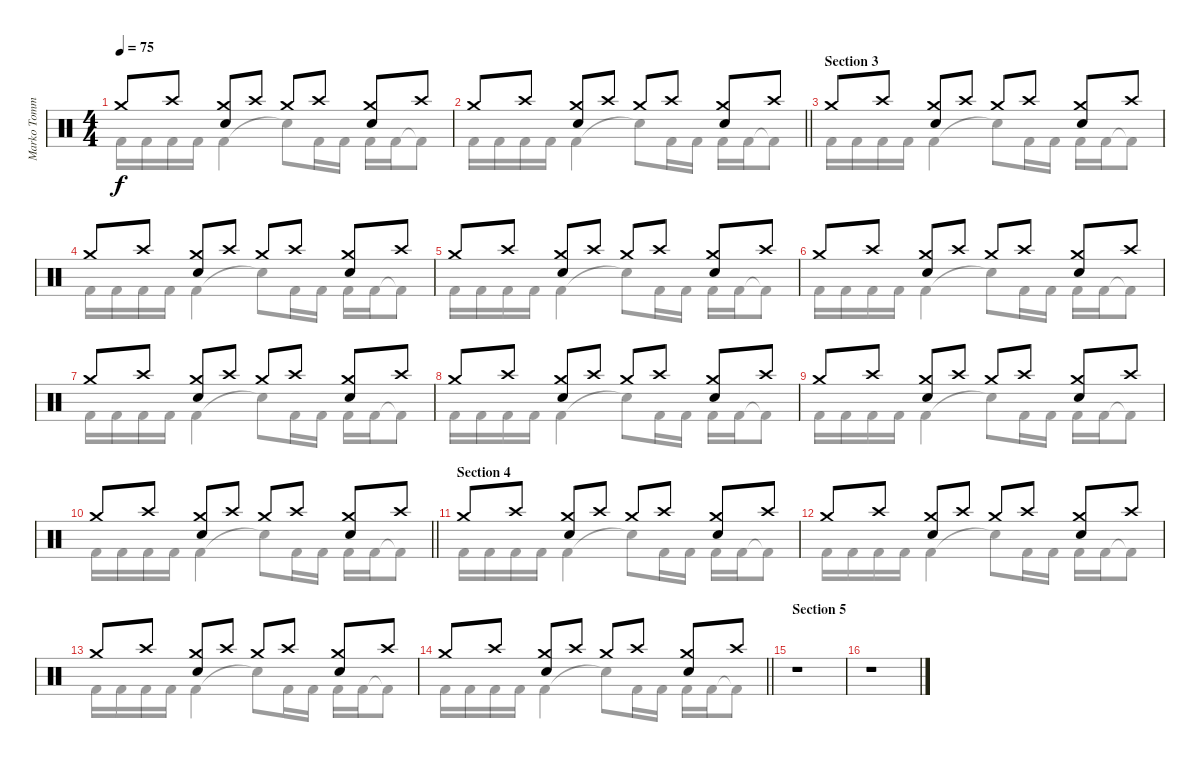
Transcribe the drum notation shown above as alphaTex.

\track ("Marko Tommila (drums)" "Marko Tomm") {instrument percussion}
\staff {score}
\articulation defaults
\voice
\ts (4 4)
\tempo 75
\clef neutral
\ks aminor "Crash medium (hit)".8{dy f} "Crash high (hit)".8
("Crash medium (hit)" "Electric Snare (hit)").8 "Crash high (hit)".8 "Crash medium (hit)".8 "Crash high (hit)".8 ("Crash medium (hit)" "Electric Snare (hit)").8 "Crash high (hit)".8 |
\barLineRight lightlight "Crash medium (hit)".8 "Crash high (hit)".8
("Crash medium (hit)" "Electric Snare (hit)").8 "Crash high (hit)".8 "Crash medium (hit)".8 "Crash high (hit)".8 ("Crash medium (hit)" "Electric Snare (hit)").8 "Crash high (hit)".8 |
\section ("" "Section 3")
"Crash medium (hit)".8 "Crash high (hit)".8 ("Crash medium (hit)" "Electric Snare (hit)").8 "Crash high (hit)".8 "Crash medium (hit)".8 "Crash high (hit)".8 ("Crash medium (hit)" "Electric Snare (hit)").8 "Crash high (hit)".8 |
"Crash medium (hit)".8 "Crash high (hit)".8 ("Crash medium (hit)" "Electric Snare (hit)").8 "Crash high (hit)".8 "Crash medium (hit)".8 "Crash high (hit)".8 ("Crash medium (hit)" "Electric Snare (hit)").8 "Crash high (hit)".8 |
"Crash medium (hit)".8 "Crash high (hit)".8 ("Crash medium (hit)" "Electric Snare (hit)").8 "Crash high (hit)".8 "Crash medium (hit)".8 "Crash high (hit)".8 ("Crash medium (hit)" "Electric Snare (hit)").8 "Crash high (hit)".8 |
"Crash medium (hit)".8 "Crash high (hit)".8 ("Crash medium (hit)" "Electric Snare (hit)").8 "Crash high (hit)".8 "Crash medium (hit)".8 "Crash high (hit)".8 ("Crash medium (hit)" "Electric Snare (hit)").8 "Crash high (hit)".8 |
"Crash medium (hit)".8 "Crash high (hit)".8 ("Crash medium (hit)" "Electric Snare (hit)").8 "Crash high (hit)".8 "Crash medium (hit)".8 "Crash high (hit)".8 ("Crash medium (hit)" "Electric Snare (hit)").8 "Crash high (hit)".8 |
"Crash medium (hit)".8 "Crash high (hit)".8 ("Crash medium (hit)" "Electric Snare (hit)").8 "Crash high (hit)".8 "Crash medium (hit)".8 "Crash high (hit)".8 ("Crash medium (hit)" "Electric Snare (hit)").8 "Crash high (hit)".8 |
"Crash medium (hit)".8 "Crash high (hit)".8 ("Crash medium (hit)" "Electric Snare (hit)").8 "Crash high (hit)".8 "Crash medium (hit)".8 "Crash high (hit)".8 ("Crash medium (hit)" "Electric Snare (hit)").8 "Crash high (hit)".8 |
\barLineRight lightlight "Crash medium (hit)".8 "Crash high (hit)".8
("Crash medium (hit)" "Electric Snare (hit)").8 "Crash high (hit)".8 "Crash medium (hit)".8 "Crash high (hit)".8 ("Crash medium (hit)" "Electric Snare (hit)").8 "Crash high (hit)".8 |
\section ("" "Section 4")
"Crash medium (hit)".8 "Crash high (hit)".8 ("Crash medium (hit)" "Electric Snare (hit)").8 "Crash high (hit)".8 "Crash medium (hit)".8 "Crash high (hit)".8 ("Crash medium (hit)" "Electric Snare (hit)").8 "Crash high (hit)".8 |
"Crash medium (hit)".8 "Crash high (hit)".8 ("Crash medium (hit)" "Electric Snare (hit)").8 "Crash high (hit)".8 "Crash medium (hit)".8 "Crash high (hit)".8 ("Crash medium (hit)" "Electric Snare (hit)").8 "Crash high (hit)".8 |
"Crash medium (hit)".8 "Crash high (hit)".8 ("Crash medium (hit)" "Electric Snare (hit)").8 "Crash high (hit)".8 "Crash medium (hit)".8 "Crash high (hit)".8 ("Crash medium (hit)" "Electric Snare (hit)").8 "Crash high (hit)".8 |
\barLineRight lightlight "Crash medium (hit)".8 "Crash high (hit)".8
("Crash medium (hit)" "Electric Snare (hit)").8 "Crash high (hit)".8 "Crash medium (hit)".8 "Crash high (hit)".8 ("Crash medium (hit)" "Electric Snare (hit)").8 "Crash high (hit)".8 |
\section ("" "Section 5")
r.1 |
r.1
\voice
\clef neutral
\ottava regular
\simile none
\ks aminor "Kick (hit) 2".16{dy f} "Kick (hit) 2".16 "Kick (hit) 2".16 "Kick (hit) 2".16 "Kick (hit) 2".4 "Snare (hit)"{t}.8 "Kick (hit) 2".16 "Kick (hit) 2".16 "Kick (hit) 2".16 "Kick (hit) 2".16 "Kick (hit) 2"{t}.8
|
\barLineRight lightlight "Kick (hit) 2".16 "Kick (hit) 2".16 "Kick (hit) 2".16 "Kick (hit) 2".16 "Kick (hit) 2".4 "Snare (hit)"{t}.8 "Kick (hit) 2".16 "Kick (hit) 2".16 "Kick (hit) 2".16 "Kick (hit) 2".16 "Kick (hit) 2"{t}.8
|
"Kick (hit) 2".16 "Kick (hit) 2".16 "Kick (hit) 2".16 "Kick (hit) 2".16 "Kick (hit) 2".4 "Snare (hit)"{t}.8 "Kick (hit) 2".16 "Kick (hit) 2".16 "Kick (hit) 2".16 "Kick (hit) 2".16 "Kick (hit) 2"{t}.8 |
"Kick (hit) 2".16 "Kick (hit) 2".16 "Kick (hit) 2".16 "Kick (hit) 2".16 "Kick (hit) 2".4 "Snare (hit)"{t}.8 "Kick (hit) 2".16 "Kick (hit) 2".16 "Kick (hit) 2".16 "Kick (hit) 2".16 "Kick (hit) 2"{t}.8 |
"Kick (hit) 2".16 "Kick (hit) 2".16 "Kick (hit) 2".16 "Kick (hit) 2".16 "Kick (hit) 2".4 "Snare (hit)"{t}.8 "Kick (hit) 2".16 "Kick (hit) 2".16 "Kick (hit) 2".16 "Kick (hit) 2".16 "Kick (hit) 2"{t}.8 |
"Kick (hit) 2".16 "Kick (hit) 2".16 "Kick (hit) 2".16 "Kick (hit) 2".16 "Kick (hit) 2".4 "Snare (hit)"{t}.8 "Kick (hit) 2".16 "Kick (hit) 2".16 "Kick (hit) 2".16 "Kick (hit) 2".16 "Kick (hit) 2"{t}.8 |
"Kick (hit) 2".16 "Kick (hit) 2".16 "Kick (hit) 2".16 "Kick (hit) 2".16 "Kick (hit) 2".4 "Snare (hit)"{t}.8 "Kick (hit) 2".16 "Kick (hit) 2".16 "Kick (hit) 2".16 "Kick (hit) 2".16 "Kick (hit) 2"{t}.8 |
"Kick (hit) 2".16 "Kick (hit) 2".16 "Kick (hit) 2".16 "Kick (hit) 2".16 "Kick (hit) 2".4 "Snare (hit)"{t}.8 "Kick (hit) 2".16 "Kick (hit) 2".16 "Kick (hit) 2".16 "Kick (hit) 2".16 "Kick (hit) 2"{t}.8 |
"Kick (hit) 2".16 "Kick (hit) 2".16 "Kick (hit) 2".16 "Kick (hit) 2".16 "Kick (hit) 2".4 "Snare (hit)"{t}.8 "Kick (hit) 2".16 "Kick (hit) 2".16 "Kick (hit) 2".16 "Kick (hit) 2".16 "Kick (hit) 2"{t}.8 |
\barLineRight lightlight "Kick (hit) 2".16 "Kick (hit) 2".16 "Kick (hit) 2".16 "Kick (hit) 2".16 "Kick (hit) 2".4 "Snare (hit)"{t}.8 "Kick (hit) 2".16 "Kick (hit) 2".16 "Kick (hit) 2".16 "Kick (hit) 2".16 "Kick (hit) 2"{t}.8
|
"Kick (hit) 2".16 "Kick (hit) 2".16 "Kick (hit) 2".16 "Kick (hit) 2".16 "Kick (hit) 2".4 "Snare (hit)"{t}.8 "Kick (hit) 2".16 "Kick (hit) 2".16 "Kick (hit) 2".16 "Kick (hit) 2".16 "Kick (hit) 2"{t}.8 |
"Kick (hit) 2".16 "Kick (hit) 2".16 "Kick (hit) 2".16 "Kick (hit) 2".16 "Kick (hit) 2".4 "Snare (hit)"{t}.8 "Kick (hit) 2".16 "Kick (hit) 2".16 "Kick (hit) 2".16 "Kick (hit) 2".16 "Kick (hit) 2"{t}.8 |
"Kick (hit) 2".16 "Kick (hit) 2".16 "Kick (hit) 2".16 "Kick (hit) 2".16 "Kick (hit) 2".4 "Snare (hit)"{t}.8 "Kick (hit) 2".16 "Kick (hit) 2".16 "Kick (hit) 2".16 "Kick (hit) 2".16 "Kick (hit) 2"{t}.8 |
\barLineRight lightlight "Kick (hit) 2".16 "Kick (hit) 2".16 "Kick (hit) 2".16 "Kick (hit) 2".16 "Kick (hit) 2".4 "Snare (hit)"{t}.8 "Kick (hit) 2".16 "Kick (hit) 2".16 "Kick (hit) 2".16 "Kick (hit) 2".16 "Kick (hit) 2"{t}.8
|
|
